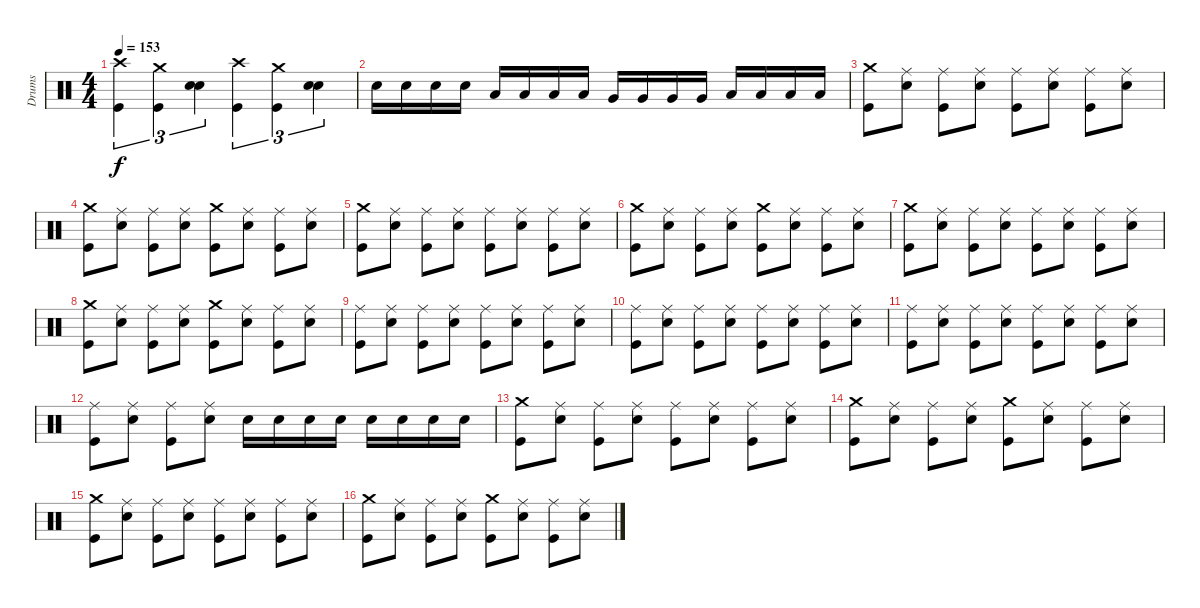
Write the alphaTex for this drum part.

\track ("Drums" "Drums") {instrument percussion}
\staff {score}
\articulation defaults
\ts (4 4)
\tempo 153
\clef neutral
\ks c
("Crash high (hit)" "Kick (hit)").4{tu (3 2) dy f} ("Crash medium (hit)" "Kick (hit)").4{tu (3 2)} ("Snare (hit) 2" "Snare (hit) 2").4{tu (3 2) bu 480} ("Crash high (hit)" "Kick (hit)").4{tu (3 2)} ("Crash medium (hit)" "Kick (hit)").4{tu (3 2)} ("Snare (hit) 2" "Snare (hit) 2").4{tu (3 2) bu 480} |
"Snare (hit) 2".16 "Snare (hit) 2".16 "Snare (hit) 2".16 "Snare (hit) 2".16 "Low Tom (hit)".16 "Low Tom (hit)".16 "Low Tom (hit)".16 "Low Tom (hit)".16 "Very Low Tom (hit)".16 "Very Low Tom (hit)".16 "Very Low Tom (hit)".16 "Very Low Tom (hit)".16 "Low Floor Tom (hit)".16 "Low Floor Tom (hit)".16 "Low Floor Tom (hit)".16 "Low Floor Tom (hit)".16 |
("Crash medium (hit)" "Kick (hit)").8 ("Ride (middle)" "Snare (hit) 2").8 ("Ride (middle)" "Kick (hit)").8 ("Ride (middle)" "Snare (hit) 2").8 ("Ride (middle)" "Kick (hit)").8 ("Ride (middle)" "Snare (hit) 2").8 ("Ride (middle)" "Kick (hit)").8 ("Ride (middle)" "Snare (hit) 2").8 |
("Crash medium (hit)" "Kick (hit)").8 ("Ride (middle)" "Snare (hit) 2").8 ("Ride (middle)" "Kick (hit)").8 ("Ride (middle)" "Snare (hit) 2").8 ("Crash medium (hit)" "Kick (hit)").8 ("Ride (middle)" "Snare (hit) 2").8 ("Ride (middle)" "Kick (hit)").8 ("Ride (middle)" "Snare (hit) 2").8 |
("Crash medium (hit)" "Kick (hit)").8 ("Ride (middle)" "Snare (hit) 2").8 ("Ride (middle)" "Kick (hit)").8 ("Ride (middle)" "Snare (hit) 2").8 ("Ride (middle)" "Kick (hit)").8 ("Ride (middle)" "Snare (hit) 2").8 ("Ride (middle)" "Kick (hit)").8 ("Ride (middle)" "Snare (hit) 2").8 |
("Crash medium (hit)" "Kick (hit)").8 ("Ride (middle)" "Snare (hit) 2").8 ("Ride (middle)" "Kick (hit)").8 ("Ride (middle)" "Snare (hit) 2").8 ("Crash medium (hit)" "Kick (hit)").8 ("Ride (middle)" "Snare (hit) 2").8 ("Ride (middle)" "Kick (hit)").8 ("Ride (middle)" "Snare (hit) 2").8 |
("Crash medium (hit)" "Kick (hit)").8 ("Ride (middle)" "Snare (hit) 2").8 ("Ride (middle)" "Kick (hit)").8 ("Ride (middle)" "Snare (hit) 2").8 ("Ride (middle)" "Kick (hit)").8 ("Ride (middle)" "Snare (hit) 2").8 ("Ride (middle)" "Kick (hit)").8 ("Ride (middle)" "Snare (hit) 2").8 |
("Crash medium (hit)" "Kick (hit)").8 ("Ride (middle)" "Snare (hit) 2").8 ("Ride (middle)" "Kick (hit)").8 ("Ride (middle)" "Snare (hit) 2").8 ("Crash medium (hit)" "Kick (hit)").8 ("Ride (middle)" "Snare (hit) 2").8 ("Ride (middle)" "Kick (hit)").8 ("Ride (middle)" "Snare (hit) 2").8 |
("Ride (middle)" "Kick (hit)").8 ("Ride (middle)" "Snare (hit) 2").8 ("Ride (middle)" "Kick (hit)").8 ("Ride (middle)" "Snare (hit) 2").8 ("Ride (middle)" "Kick (hit)").8 ("Ride (middle)" "Snare (hit) 2").8 ("Ride (middle)" "Kick (hit)").8 ("Ride (middle)" "Snare (hit) 2").8 |
("Ride (middle)" "Kick (hit)").8 ("Ride (middle)" "Snare (hit) 2").8 ("Ride (middle)" "Kick (hit)").8 ("Ride (middle)" "Snare (hit) 2").8 ("Ride (middle)" "Kick (hit)").8 ("Ride (middle)" "Snare (hit) 2").8 ("Ride (middle)" "Kick (hit)").8 ("Ride (middle)" "Snare (hit) 2").8 |
("Ride (middle)" "Kick (hit)").8 ("Ride (middle)" "Snare (hit) 2").8 ("Ride (middle)" "Kick (hit)").8 ("Ride (middle)" "Snare (hit) 2").8 ("Ride (middle)" "Kick (hit)").8 ("Ride (middle)" "Snare (hit) 2").8 ("Ride (middle)" "Kick (hit)").8 ("Ride (middle)" "Snare (hit) 2").8 |
("Ride (middle)" "Kick (hit)").8 ("Ride (middle)" "Snare (hit) 2").8 ("Ride (middle)" "Kick (hit)").8 ("Ride (middle)" "Snare (hit) 2").8 "Snare (hit) 2".16 "Snare (hit) 2".16 "Snare (hit) 2".16 "Snare (hit) 2".16 "Snare (hit) 2".16 "Snare (hit) 2".16 "Snare (hit) 2".16 "Snare (hit) 2".16 |
("Crash medium (hit)" "Kick (hit)").8 ("Ride (middle)" "Snare (hit) 2").8 ("Ride (middle)" "Kick (hit)").8 ("Ride (middle)" "Snare (hit) 2").8 ("Ride (middle)" "Kick (hit)").8 ("Ride (middle)" "Snare (hit) 2").8 ("Ride (middle)" "Kick (hit)").8 ("Ride (middle)" "Snare (hit) 2").8 |
("Crash medium (hit)" "Kick (hit)").8 ("Ride (middle)" "Snare (hit) 2").8 ("Ride (middle)" "Kick (hit)").8 ("Ride (middle)" "Snare (hit) 2").8 ("Crash medium (hit)" "Kick (hit)").8 ("Ride (middle)" "Snare (hit) 2").8 ("Ride (middle)" "Kick (hit)").8 ("Ride (middle)" "Snare (hit) 2").8 |
("Crash medium (hit)" "Kick (hit)").8 ("Ride (middle)" "Snare (hit) 2").8 ("Ride (middle)" "Kick (hit)").8 ("Ride (middle)" "Snare (hit) 2").8 ("Ride (middle)" "Kick (hit)").8 ("Ride (middle)" "Snare (hit) 2").8 ("Ride (middle)" "Kick (hit)").8 ("Ride (middle)" "Snare (hit) 2").8 |
("Crash medium (hit)" "Kick (hit)").8 ("Ride (middle)" "Snare (hit) 2").8 ("Ride (middle)" "Kick (hit)").8 ("Ride (middle)" "Snare (hit) 2").8 ("Crash medium (hit)" "Kick (hit)").8 ("Ride (middle)" "Snare (hit) 2").8 ("Ride (middle)" "Kick (hit)").8 ("Ride (middle)" "Snare (hit) 2").8
